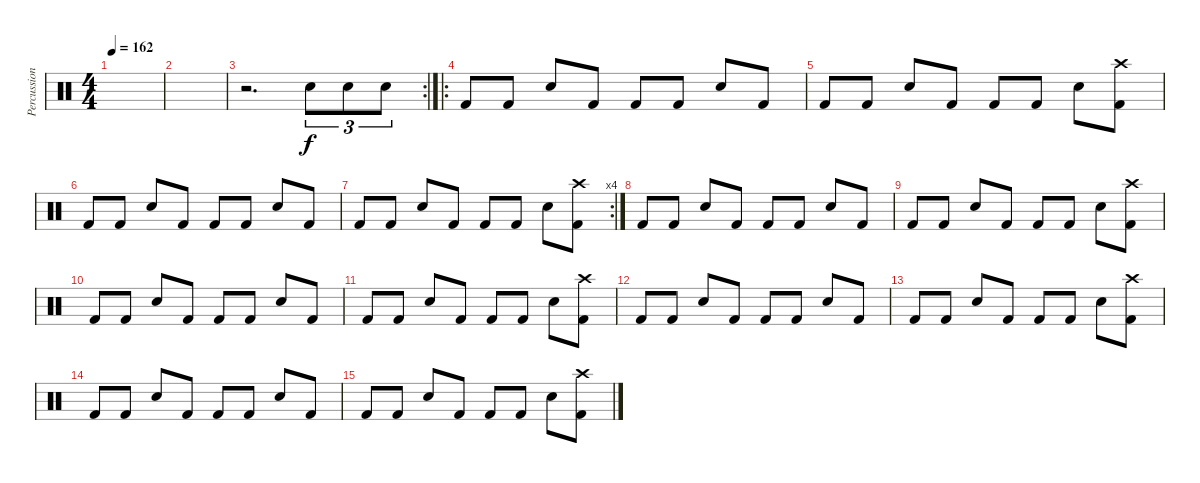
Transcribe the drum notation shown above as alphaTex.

\track ("Percussion" "Percussion") {instrument percussion}
\staff {score}
\articulation defaults
\ts (4 4)
\tempo 162
\clef neutral
\ks c
|
|
\rc 2
r.2{d} "Snare (hit) 2".8{tu (3 2)} "Snare (hit) 2".8{tu (3 2)} "Snare (hit) 2".8{tu (3 2)} |
\ro "Kick (hit) 2".8 "Kick (hit) 2".8 "Snare (hit) 2".8 "Kick (hit) 2".8 "Kick (hit) 2".8 "Kick (hit) 2".8 "Snare (hit) 2".8 "Kick (hit) 2".8
|
"Kick (hit) 2".8 "Kick (hit) 2".8 "Snare (hit) 2".8 "Kick (hit) 2".8 "Kick (hit) 2".8 "Kick (hit) 2".8 "Snare (hit) 2".8 ("Crash high (hit)" "Kick (hit) 2").8 |
"Kick (hit) 2".8 "Kick (hit) 2".8 "Snare (hit) 2".8 "Kick (hit) 2".8 "Kick (hit) 2".8 "Kick (hit) 2".8 "Snare (hit) 2".8 "Kick (hit) 2".8 |
\rc 4 "Kick (hit) 2".8 "Kick (hit) 2".8 "Snare (hit) 2".8 "Kick (hit) 2".8 "Kick (hit) 2".8 "Kick (hit) 2".8 "Snare (hit) 2".8
("Crash high (hit)" "Kick (hit) 2").8 |
"Kick (hit) 2".8 "Kick (hit) 2".8 "Snare (hit) 2".8 "Kick (hit) 2".8 "Kick (hit) 2".8 "Kick (hit) 2".8 "Snare (hit) 2".8 "Kick (hit) 2".8 |
"Kick (hit) 2".8 "Kick (hit) 2".8 "Snare (hit) 2".8 "Kick (hit) 2".8 "Kick (hit) 2".8 "Kick (hit) 2".8 "Snare (hit) 2".8 ("Crash high (hit)" "Kick (hit) 2").8 |
"Kick (hit) 2".8 "Kick (hit) 2".8 "Snare (hit) 2".8 "Kick (hit) 2".8 "Kick (hit) 2".8 "Kick (hit) 2".8 "Snare (hit) 2".8 "Kick (hit) 2".8 |
"Kick (hit) 2".8 "Kick (hit) 2".8 "Snare (hit) 2".8 "Kick (hit) 2".8 "Kick (hit) 2".8 "Kick (hit) 2".8 "Snare (hit) 2".8 ("Crash high (hit)" "Kick (hit) 2").8 |
"Kick (hit) 2".8 "Kick (hit) 2".8 "Snare (hit) 2".8 "Kick (hit) 2".8 "Kick (hit) 2".8 "Kick (hit) 2".8 "Snare (hit) 2".8 "Kick (hit) 2".8 |
"Kick (hit) 2".8 "Kick (hit) 2".8 "Snare (hit) 2".8 "Kick (hit) 2".8 "Kick (hit) 2".8 "Kick (hit) 2".8 "Snare (hit) 2".8 ("Crash high (hit)" "Kick (hit) 2").8 |
"Kick (hit) 2".8 "Kick (hit) 2".8 "Snare (hit) 2".8 "Kick (hit) 2".8 "Kick (hit) 2".8 "Kick (hit) 2".8 "Snare (hit) 2".8 "Kick (hit) 2".8 |
"Kick (hit) 2".8 "Kick (hit) 2".8 "Snare (hit) 2".8 "Kick (hit) 2".8 "Kick (hit) 2".8 "Kick (hit) 2".8 "Snare (hit) 2".8 ("Crash high (hit)" "Kick (hit) 2").8
